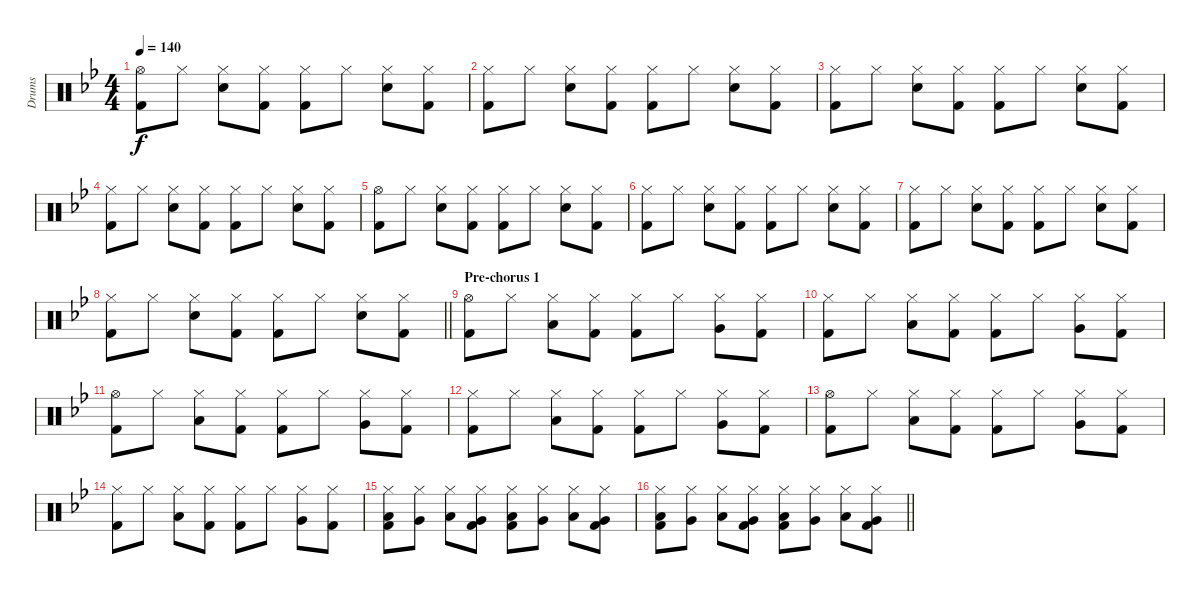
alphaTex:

\track ("Drums" "Drums") {instrument percussion}
\staff {score}
\articulation defaults
\ts (4 4)
\tempo 140
\clef neutral
\ks bb
("Hi-Hat (open)" "Kick (hit) 2").8{dy f} "Hi-Hat (closed)".8 ("Hi-Hat (closed)" "Snare (hit) 2").8 ("Hi-Hat (closed)" "Kick (hit) 2").8 ("Hi-Hat (closed)" "Kick (hit) 2").8 "Hi-Hat (closed)".8 ("Hi-Hat (closed)" "Snare (hit) 2").8 ("Hi-Hat (closed)" "Kick (hit) 2").8 |
("Hi-Hat (closed)" "Kick (hit) 2").8 "Hi-Hat (closed)".8 ("Hi-Hat (closed)" "Snare (hit) 2").8 ("Hi-Hat (closed)" "Kick (hit) 2").8 ("Hi-Hat (closed)" "Kick (hit) 2").8 "Hi-Hat (closed)".8 ("Hi-Hat (closed)" "Snare (hit) 2").8 ("Hi-Hat (closed)" "Kick (hit) 2").8 |
("Hi-Hat (closed)" "Kick (hit) 2").8 "Hi-Hat (closed)".8 ("Hi-Hat (closed)" "Snare (hit) 2").8 ("Hi-Hat (closed)" "Kick (hit) 2").8 ("Hi-Hat (closed)" "Kick (hit) 2").8 "Hi-Hat (closed)".8 ("Hi-Hat (closed)" "Snare (hit) 2").8 ("Hi-Hat (closed)" "Kick (hit) 2").8 |
("Hi-Hat (closed)" "Kick (hit) 2").8 "Hi-Hat (closed)".8 ("Hi-Hat (closed)" "Snare (hit) 2").8 ("Hi-Hat (closed)" "Kick (hit) 2").8 ("Hi-Hat (closed)" "Kick (hit) 2").8 "Hi-Hat (closed)".8 ("Hi-Hat (closed)" "Snare (hit) 2").8 ("Hi-Hat (closed)" "Kick (hit) 2").8 |
("Hi-Hat (open)" "Kick (hit) 2").8 "Hi-Hat (closed)".8 ("Hi-Hat (closed)" "Snare (hit) 2").8 ("Hi-Hat (closed)" "Kick (hit) 2").8 ("Hi-Hat (closed)" "Kick (hit) 2").8 "Hi-Hat (closed)".8 ("Hi-Hat (closed)" "Snare (hit) 2").8 ("Hi-Hat (closed)" "Kick (hit) 2").8 |
("Hi-Hat (closed)" "Kick (hit) 2").8 "Hi-Hat (closed)".8 ("Hi-Hat (closed)" "Snare (hit) 2").8 ("Hi-Hat (closed)" "Kick (hit) 2").8 ("Hi-Hat (closed)" "Kick (hit) 2").8 "Hi-Hat (closed)".8 ("Hi-Hat (closed)" "Snare (hit) 2").8 ("Hi-Hat (closed)" "Kick (hit) 2").8 |
("Hi-Hat (closed)" "Kick (hit) 2").8 "Hi-Hat (closed)".8 ("Hi-Hat (closed)" "Snare (hit) 2").8 ("Hi-Hat (closed)" "Kick (hit) 2").8 ("Hi-Hat (closed)" "Kick (hit) 2").8 "Hi-Hat (closed)".8 ("Hi-Hat (closed)" "Snare (hit) 2").8 ("Hi-Hat (closed)" "Kick (hit) 2").8 |
\barLineRight lightlight
("Hi-Hat (closed)" "Kick (hit) 2").8 "Hi-Hat (closed)".8 ("Hi-Hat (closed)" "Snare (hit) 2").8 ("Hi-Hat (closed)" "Kick (hit) 2").8 ("Hi-Hat (closed)" "Kick (hit) 2").8 "Hi-Hat (closed)".8 ("Hi-Hat (closed)" "Snare (hit) 2").8 ("Hi-Hat (closed)" "Kick (hit) 2").8 |
\section ("" "Pre-chorus 1")
("Hi-Hat (open)" "Kick (hit) 2").8 "Hi-Hat (closed)".8 ("Hi-Hat (closed)" "Low Floor Tom (hit)").8 ("Hi-Hat (closed)" "Kick (hit) 2").8 ("Hi-Hat (closed)" "Kick (hit) 2").8 "Hi-Hat (closed)".8 ("Hi-Hat (closed)" "Very Low Tom (hit)").8 ("Hi-Hat (closed)" "Kick (hit) 2").8 |
("Hi-Hat (closed)" "Kick (hit) 2").8 "Hi-Hat (closed)".8 ("Hi-Hat (closed)" "Low Floor Tom (hit)").8 ("Hi-Hat (closed)" "Kick (hit) 2").8 ("Hi-Hat (closed)" "Kick (hit) 2").8 "Hi-Hat (closed)".8 ("Hi-Hat (closed)" "Very Low Tom (hit)").8 ("Hi-Hat (closed)" "Kick (hit) 2").8 |
("Hi-Hat (open)" "Kick (hit) 2").8 "Hi-Hat (closed)".8 ("Hi-Hat (closed)" "Low Floor Tom (hit)").8 ("Hi-Hat (closed)" "Kick (hit) 2").8 ("Hi-Hat (closed)" "Kick (hit) 2").8 "Hi-Hat (closed)".8 ("Hi-Hat (closed)" "Very Low Tom (hit)").8 ("Hi-Hat (closed)" "Kick (hit) 2").8 |
("Hi-Hat (closed)" "Kick (hit) 2").8 "Hi-Hat (closed)".8 ("Hi-Hat (closed)" "Low Floor Tom (hit)").8 ("Hi-Hat (closed)" "Kick (hit) 2").8 ("Hi-Hat (closed)" "Kick (hit) 2").8 "Hi-Hat (closed)".8 ("Hi-Hat (closed)" "Very Low Tom (hit)").8 ("Hi-Hat (closed)" "Kick (hit) 2").8 |
("Hi-Hat (open)" "Kick (hit) 2").8 "Hi-Hat (closed)".8 ("Hi-Hat (closed)" "Low Floor Tom (hit)").8 ("Hi-Hat (closed)" "Kick (hit) 2").8 ("Hi-Hat (closed)" "Kick (hit) 2").8 "Hi-Hat (closed)".8 ("Hi-Hat (closed)" "Very Low Tom (hit)").8 ("Hi-Hat (closed)" "Kick (hit) 2").8 |
("Hi-Hat (closed)" "Kick (hit) 2").8 "Hi-Hat (closed)".8 ("Hi-Hat (closed)" "Low Floor Tom (hit)").8 ("Hi-Hat (closed)" "Kick (hit) 2").8 ("Hi-Hat (closed)" "Kick (hit) 2").8 "Hi-Hat (closed)".8 ("Hi-Hat (closed)" "Very Low Tom (hit)").8 ("Hi-Hat (closed)" "Kick (hit) 2").8 |
("Hi-Hat (closed)" "Low Tom (hit)" "Kick (hit) 2").8 ("Hi-Hat (closed)" "Very Low Tom (hit)").8 ("Hi-Hat (closed)" "Low Tom (hit)").8 ("Hi-Hat (closed)" "Very Low Tom (hit)" "Kick (hit) 2").8 ("Hi-Hat (closed)" "Low Tom (hit)" "Kick (hit) 2").8 ("Hi-Hat (closed)" "Very Low Tom (hit)").8 ("Hi-Hat (closed)" "Low Tom (hit)").8 ("Hi-Hat (closed)" "Very Low Tom (hit)" "Kick (hit) 2").8 |
\barLineRight lightlight
("Hi-Hat (closed)" "Low Tom (hit)" "Kick (hit) 2").8 ("Hi-Hat (closed)" "Very Low Tom (hit)").8 ("Hi-Hat (closed)" "Low Tom (hit)").8 ("Hi-Hat (closed)" "Very Low Tom (hit)" "Kick (hit) 2").8 ("Hi-Hat (closed)" "Low Tom (hit)" "Kick (hit) 2").8 ("Hi-Hat (closed)" "Very Low Tom (hit)").8 ("Hi-Hat (closed)" "Low Tom (hit)").8 ("Hi-Hat (closed)" "Very Low Tom (hit)" "Kick (hit) 2").8
